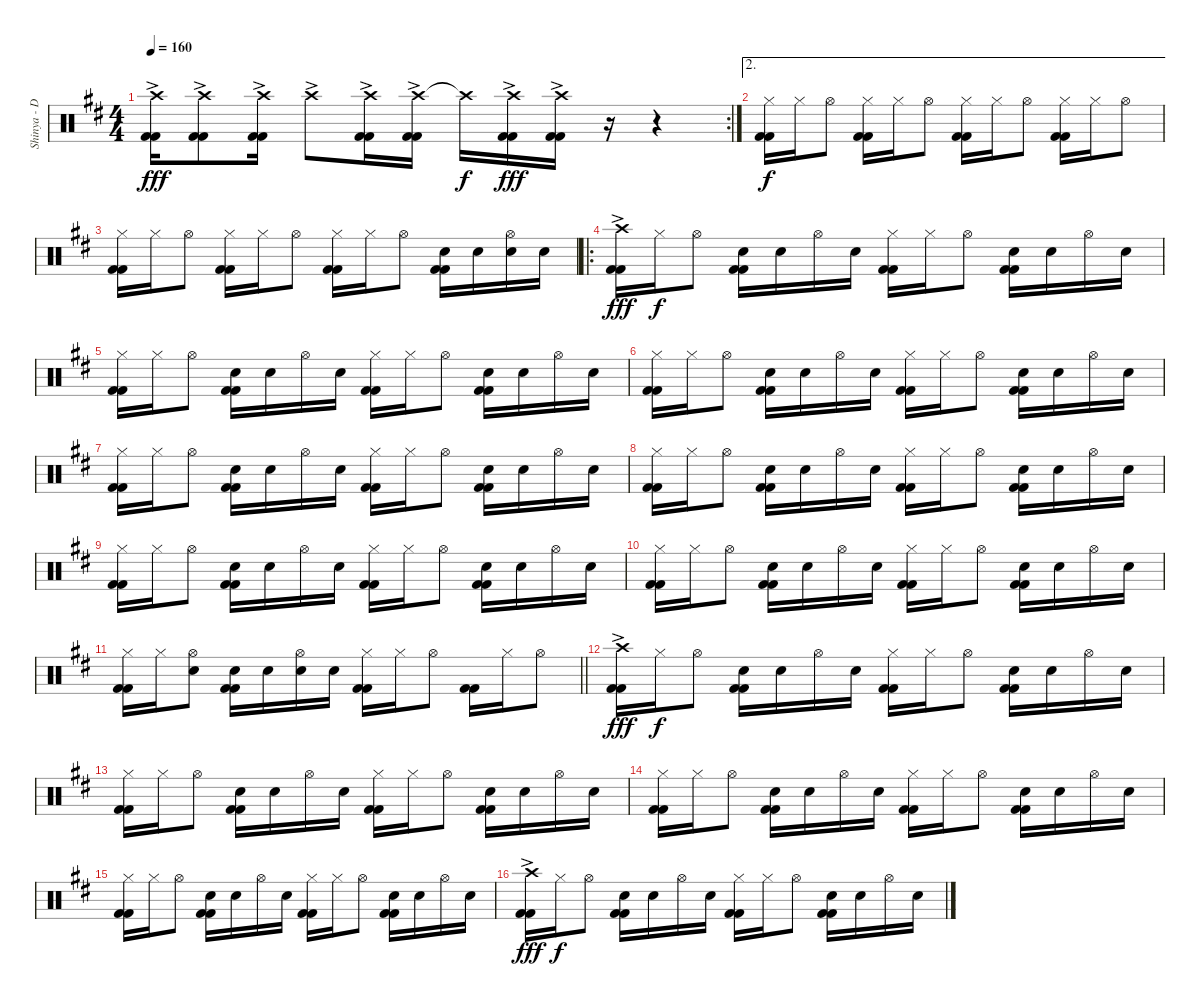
\track ("Shinya - Drums" "Shinya - D") {instrument percussion}
\staff {score}
\articulation defaults
\rc 2
\ts (4 4)
\tempo 160
\clef neutral
\ks d
("Crash high (hit)"{ac} "Kick (hit) 2" "Kick (hit) 2").16{dy fff} ("Crash high (hit)"{ac} "Kick (hit) 2" "Kick (hit) 2").8 ("Crash high (hit)"{ac} "Kick (hit) 2" "Kick (hit) 2").16 "Crash high (hit)"{ac}.8 ("Crash high (hit)"{ac} "Kick (hit) 2" "Kick (hit) 2").16 ("Crash high (hit)"{ac} "Kick (hit) 2" "Kick (hit) 2").16 "Crash high (hit)"{t}.16{dy f} ("Crash high (hit)"{ac} "Kick (hit) 2" "Kick (hit) 2").16{dy fff} ("Crash high (hit)"{ac} "Kick (hit) 2" "Kick (hit) 2").16 r.16 r.4 |
\ae 2
("Hi-Hat (closed)" "Kick (hit) 2" "Kick (hit) 2").16{dy f} "Hi-Hat (closed)".16 "Hi-Hat (open)".8 ("Hi-Hat (closed)" "Kick (hit) 2" "Kick (hit) 2").16 "Hi-Hat (closed)".16 "Hi-Hat (open)".8 ("Hi-Hat (closed)" "Kick (hit) 2" "Kick (hit) 2").16 "Hi-Hat (closed)".16 "Hi-Hat (open)".8 ("Hi-Hat (closed)" "Kick (hit) 2" "Kick (hit) 2").16 "Hi-Hat (closed)".16 "Hi-Hat (open)".8 |
("Hi-Hat (closed)" "Kick (hit) 2" "Kick (hit) 2").16 "Hi-Hat (closed)".16 "Hi-Hat (open)".8 ("Hi-Hat (closed)" "Kick (hit) 2" "Kick (hit) 2").16 "Hi-Hat (closed)".16 "Hi-Hat (open)".8 ("Hi-Hat (closed)" "Kick (hit) 2" "Kick (hit) 2").16 "Hi-Hat (closed)".16 "Hi-Hat (open)".8 ("Snare (hit) 2" "Kick (hit) 2" "Kick (hit) 2").16 "Snare (hit) 2".16 ("Hi-Hat (open)" "Snare (hit) 2").16 "Snare (hit) 2".16 |
\ro
("Crash high (hit)"{ac} "Kick (hit) 2" "Kick (hit) 2").16{dy fff} "Hi-Hat (closed)".16{dy f} "Hi-Hat (open)".8 ("Snare (hit) 2" "Kick (hit) 2" "Kick (hit) 2").16 "Snare (hit) 2".16 "Hi-Hat (open)".16 "Snare (hit) 2".16 ("Hi-Hat (closed)" "Kick (hit) 2" "Kick (hit) 2").16 "Hi-Hat (closed)".16 "Hi-Hat (open)".8 ("Snare (hit) 2" "Kick (hit) 2" "Kick (hit) 2").16 "Snare (hit) 2".16 "Hi-Hat (open)".16 "Snare (hit) 2".16 |
("Hi-Hat (closed)" "Kick (hit) 2" "Kick (hit) 2").16 "Hi-Hat (closed)".16 "Hi-Hat (open)".8 ("Snare (hit) 2" "Kick (hit) 2" "Kick (hit) 2").16 "Snare (hit) 2".16 "Hi-Hat (open)".16 "Snare (hit) 2".16 ("Hi-Hat (closed)" "Kick (hit) 2" "Kick (hit) 2").16 "Hi-Hat (closed)".16 "Hi-Hat (open)".8 ("Snare (hit) 2" "Kick (hit) 2" "Kick (hit) 2").16 "Snare (hit) 2".16 "Hi-Hat (open)".16 "Snare (hit) 2".16 |
("Hi-Hat (closed)" "Kick (hit) 2" "Kick (hit) 2").16 "Hi-Hat (closed)".16 "Hi-Hat (open)".8 ("Snare (hit) 2" "Kick (hit) 2" "Kick (hit) 2").16 "Snare (hit) 2".16 "Hi-Hat (open)".16 "Snare (hit) 2".16 ("Hi-Hat (closed)" "Kick (hit) 2" "Kick (hit) 2").16 "Hi-Hat (closed)".16 "Hi-Hat (open)".8 ("Snare (hit) 2" "Kick (hit) 2" "Kick (hit) 2").16 "Snare (hit) 2".16 "Hi-Hat (open)".16 "Snare (hit) 2".16 |
("Hi-Hat (closed)" "Kick (hit) 2" "Kick (hit) 2").16 "Hi-Hat (closed)".16 "Hi-Hat (open)".8 ("Snare (hit) 2" "Kick (hit) 2" "Kick (hit) 2").16 "Snare (hit) 2".16 "Hi-Hat (open)".16 "Snare (hit) 2".16 ("Hi-Hat (closed)" "Kick (hit) 2" "Kick (hit) 2").16 "Hi-Hat (closed)".16 "Hi-Hat (open)".8 ("Snare (hit) 2" "Kick (hit) 2" "Kick (hit) 2").16 "Snare (hit) 2".16 "Hi-Hat (open)".16 "Snare (hit) 2".16 |
("Hi-Hat (closed)" "Kick (hit) 2" "Kick (hit) 2").16 "Hi-Hat (closed)".16 "Hi-Hat (open)".8 ("Snare (hit) 2" "Kick (hit) 2" "Kick (hit) 2").16 "Snare (hit) 2".16 "Hi-Hat (open)".16 "Snare (hit) 2".16 ("Hi-Hat (closed)" "Kick (hit) 2" "Kick (hit) 2").16 "Hi-Hat (closed)".16 "Hi-Hat (open)".8 ("Snare (hit) 2" "Kick (hit) 2" "Kick (hit) 2").16 "Snare (hit) 2".16 "Hi-Hat (open)".16 "Snare (hit) 2".16 |
("Hi-Hat (closed)" "Kick (hit) 2" "Kick (hit) 2").16 "Hi-Hat (closed)".16 "Hi-Hat (open)".8 ("Snare (hit) 2" "Kick (hit) 2" "Kick (hit) 2").16 "Snare (hit) 2".16 "Hi-Hat (open)".16 "Snare (hit) 2".16 ("Hi-Hat (closed)" "Kick (hit) 2" "Kick (hit) 2").16 "Hi-Hat (closed)".16 "Hi-Hat (open)".8 ("Snare (hit) 2" "Kick (hit) 2" "Kick (hit) 2").16 "Snare (hit) 2".16 "Hi-Hat (open)".16 "Snare (hit) 2".16 |
("Hi-Hat (closed)" "Kick (hit) 2" "Kick (hit) 2").16 "Hi-Hat (closed)".16 "Hi-Hat (open)".8 ("Snare (hit) 2" "Kick (hit) 2" "Kick (hit) 2").16 "Snare (hit) 2".16 "Hi-Hat (open)".16 "Snare (hit) 2".16 ("Hi-Hat (closed)" "Kick (hit) 2" "Kick (hit) 2").16 "Hi-Hat (closed)".16 "Hi-Hat (open)".8 ("Snare (hit) 2" "Kick (hit) 2" "Kick (hit) 2").16 "Snare (hit) 2".16 "Hi-Hat (open)".16 "Snare (hit) 2".16 |
\barLineRight lightlight
("Hi-Hat (closed)" "Kick (hit) 2" "Kick (hit) 2").16 "Hi-Hat (closed)".16 ("Hi-Hat (open)" "Snare (hit) 2").8 ("Snare (hit) 2" "Kick (hit) 2" "Kick (hit) 2").16 "Snare (hit) 2".16 ("Hi-Hat (open)" "Snare (hit) 2").16 "Snare (hit) 2".16 ("Hi-Hat (closed)" "Kick (hit) 2" "Kick (hit) 2").16 "Hi-Hat (closed)".16 "Hi-Hat (open)".8 ("Kick (hit) 2" "Kick (hit) 2").16 "Hi-Hat (closed)".16 "Hi-Hat (open)".8 |
("Crash high (hit)"{ac} "Kick (hit) 2" "Kick (hit) 2").16{dy fff} "Hi-Hat (closed)".16{dy f} "Hi-Hat (open)".8 ("Snare (hit) 2" "Kick (hit) 2" "Kick (hit) 2").16 "Snare (hit) 2".16 "Hi-Hat (open)".16 "Snare (hit) 2".16 ("Hi-Hat (closed)" "Kick (hit) 2" "Kick (hit) 2").16 "Hi-Hat (closed)".16 "Hi-Hat (open)".8 ("Snare (hit) 2" "Kick (hit) 2" "Kick (hit) 2").16 "Snare (hit) 2".16 "Hi-Hat (open)".16 "Snare (hit) 2".16 |
("Hi-Hat (closed)" "Kick (hit) 2" "Kick (hit) 2").16 "Hi-Hat (closed)".16 "Hi-Hat (open)".8 ("Snare (hit) 2" "Kick (hit) 2" "Kick (hit) 2").16 "Snare (hit) 2".16 "Hi-Hat (open)".16 "Snare (hit) 2".16 ("Hi-Hat (closed)" "Kick (hit) 2" "Kick (hit) 2").16 "Hi-Hat (closed)".16 "Hi-Hat (open)".8 ("Snare (hit) 2" "Kick (hit) 2" "Kick (hit) 2").16 "Snare (hit) 2".16 "Hi-Hat (open)".16 "Snare (hit) 2".16 |
("Hi-Hat (closed)" "Kick (hit) 2" "Kick (hit) 2").16 "Hi-Hat (closed)".16 "Hi-Hat (open)".8 ("Snare (hit) 2" "Kick (hit) 2" "Kick (hit) 2").16 "Snare (hit) 2".16 "Hi-Hat (open)".16 "Snare (hit) 2".16 ("Hi-Hat (closed)" "Kick (hit) 2" "Kick (hit) 2").16 "Hi-Hat (closed)".16 "Hi-Hat (open)".8 ("Snare (hit) 2" "Kick (hit) 2" "Kick (hit) 2").16 "Snare (hit) 2".16 "Hi-Hat (open)".16 "Snare (hit) 2".16 |
("Hi-Hat (closed)" "Kick (hit) 2" "Kick (hit) 2").16 "Hi-Hat (closed)".16 "Hi-Hat (open)".8 ("Snare (hit) 2" "Kick (hit) 2" "Kick (hit) 2").16 "Snare (hit) 2".16 "Hi-Hat (open)".16 "Snare (hit) 2".16 ("Hi-Hat (closed)" "Kick (hit) 2" "Kick (hit) 2").16 "Hi-Hat (closed)".16 "Hi-Hat (open)".8 ("Snare (hit) 2" "Kick (hit) 2" "Kick (hit) 2").16 "Snare (hit) 2".16 "Hi-Hat (open)".16 "Snare (hit) 2".16 |
("Crash high (hit)"{ac} "Kick (hit) 2" "Kick (hit) 2").16{dy fff} "Hi-Hat (closed)".16{dy f} "Hi-Hat (open)".8 ("Snare (hit) 2" "Kick (hit) 2" "Kick (hit) 2").16 "Snare (hit) 2".16 "Hi-Hat (open)".16 "Snare (hit) 2".16 ("Hi-Hat (closed)" "Kick (hit) 2" "Kick (hit) 2").16 "Hi-Hat (closed)".16 "Hi-Hat (open)".8 ("Snare (hit) 2" "Kick (hit) 2" "Kick (hit) 2").16 "Snare (hit) 2".16 "Hi-Hat (open)".16 "Snare (hit) 2".16
